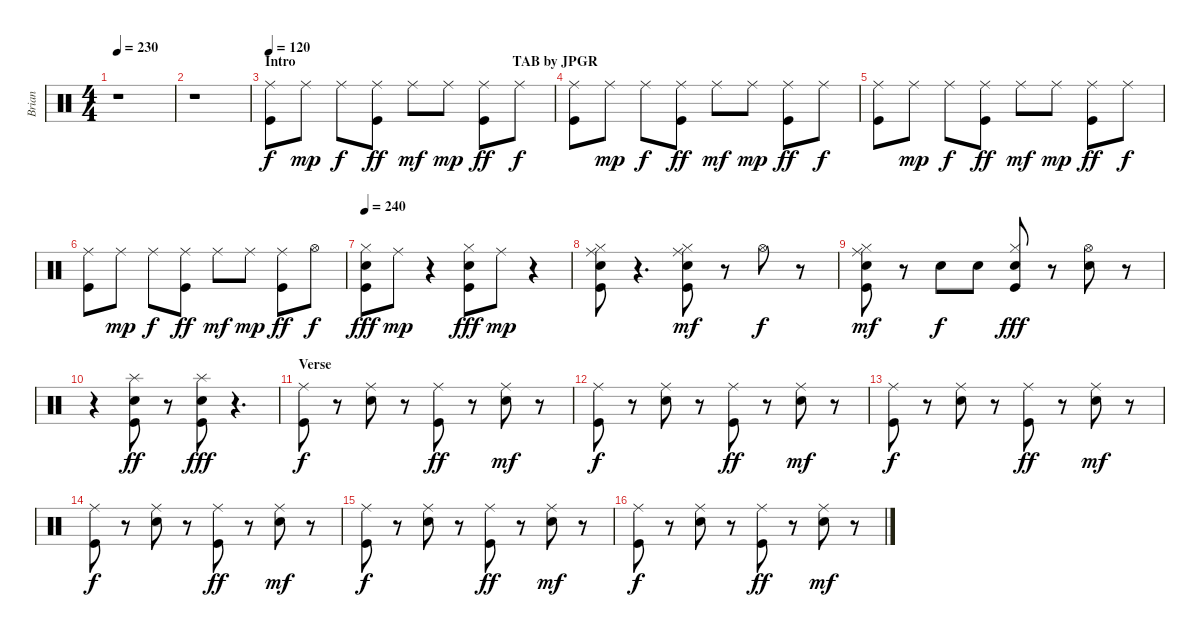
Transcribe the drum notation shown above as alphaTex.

\track ("Brian" "Brian") {instrument percussion}
\staff {score}
\articulation defaults
\ts (4 4)
\tempo 230
\tempo 115
\tempo 230
\clef neutral
\ks c
r.1{dy f} |
r.1 |
\section ("" "Intro                                                              TAB by JPGR")
\tempo 120
("Ride (middle)" "Kick (hit)").8 "Ride (middle)".8{dy mp} "Ride (middle)".8{dy f} ("Ride (middle)" "Kick (hit)").8{dy ff} "Ride (middle)".8{dy mf} "Ride (middle)".8{dy mp} ("Ride (middle)" "Kick (hit)").8{dy ff} "Ride (middle)".8{dy f} |
("Ride (middle)" "Kick (hit)").8 "Ride (middle)".8{dy mp} "Ride (middle)".8{dy f} ("Ride (middle)" "Kick (hit)").8{dy ff} "Ride (middle)".8{dy mf} "Ride (middle)".8{dy mp} ("Ride (middle)" "Kick (hit)").8{dy ff} "Ride (middle)".8{dy f} |
("Ride (middle)" "Kick (hit)").8 "Ride (middle)".8{dy mp} "Ride (middle)".8{dy f} ("Ride (middle)" "Kick (hit)").8{dy ff} "Ride (middle)".8{dy mf} "Ride (middle)".8{dy mp} ("Ride (middle)" "Kick (hit)").8{dy ff} "Ride (middle)".8{dy f} |
("Ride (middle)" "Kick (hit)").8 "Ride (middle)".8{dy mp} "Ride (middle)".8{dy f} ("Ride (middle)" "Kick (hit)").8{dy ff} "Ride (middle)".8{dy mf} "Ride (middle)".8{dy mp} ("Ride (middle)" "Kick (hit)").8{dy ff} "Hi-Hat (open)".8{dy f} |
\tempo 240
("Hi-Hat (closed)" "Snare (hit) 2" "Kick (hit)").8{dy fff} "Ride (middle)".8{dy mp} r.4 ("Hi-Hat (closed)" "Snare (hit) 2" "Kick (hit)").8{dy fff} "Ride (middle)".8{dy mp} r.4 |
("Ride (middle)" "Hi-Hat (closed)" "Snare (hit) 2" "Kick (hit)").8 r.4{d} ("Ride (middle)" "Hi-Hat (closed)" "Snare (hit) 2" "Kick (hit)").8{dy mf} r.8 "Hi-Hat (open)".8{dy f} r.8 |
("Ride (middle)" "Hi-Hat (closed)" "Snare (hit) 2" "Kick (hit)").8{dy mf} r.8 "Snare (hit) 2".8{dy f} "Snare (hit) 2".8 ("Hi-Hat (closed)" "Snare (hit) 2" "Kick (hit)").8{dy fff} r.8 ("Hi-Hat (open)" "Snare (hit) 2").8 r.8 |
r.4 ("Splash (hit)" "Snare (hit) 2" "Kick (hit)").8{dy ff} r.8 ("Splash (hit)" "Snare (hit) 2" "Kick (hit)").8{dy fff} r.4{d} |
\section ("" "Verse ")
("Ride (middle)" "Kick (hit)").8{dy f} r.8 ("Ride (middle)" "Snare (hit) 2").8 r.8 ("Ride (middle)" "Kick (hit)").8{dy ff} r.8 ("Ride (middle)" "Snare (hit) 2").8{dy mf} r.8 |
("Ride (middle)" "Kick (hit)").8{dy f} r.8 ("Ride (middle)" "Snare (hit) 2").8 r.8 ("Ride (middle)" "Kick (hit)").8{dy ff} r.8 ("Ride (middle)" "Snare (hit) 2").8{dy mf} r.8 |
("Ride (middle)" "Kick (hit)").8{dy f} r.8 ("Ride (middle)" "Snare (hit) 2").8 r.8 ("Ride (middle)" "Kick (hit)").8{dy ff} r.8 ("Ride (middle)" "Snare (hit) 2").8{dy mf} r.8 |
("Ride (middle)" "Kick (hit)").8{dy f} r.8 ("Ride (middle)" "Snare (hit) 2").8 r.8 ("Ride (middle)" "Kick (hit)").8{dy ff} r.8 ("Ride (middle)" "Snare (hit) 2").8{dy mf} r.8 |
("Ride (middle)" "Kick (hit)").8{dy f} r.8 ("Ride (middle)" "Snare (hit) 2").8 r.8 ("Ride (middle)" "Kick (hit)").8{dy ff} r.8 ("Ride (middle)" "Snare (hit) 2").8{dy mf} r.8 |
("Ride (middle)" "Kick (hit)").8{dy f} r.8 ("Ride (middle)" "Snare (hit) 2").8 r.8 ("Ride (middle)" "Kick (hit)").8{dy ff} r.8 ("Ride (middle)" "Snare (hit) 2").8{dy mf} r.8
